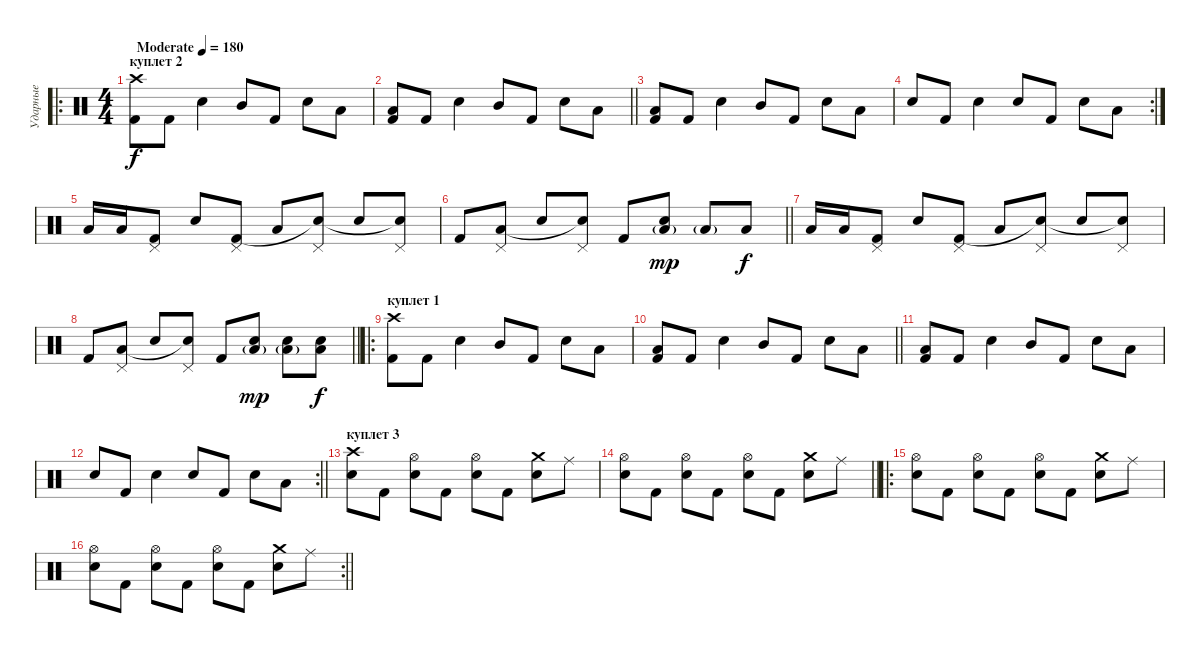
\track ("Ударные" "Ударные") {instrument percussion}
\staff {score}
\articulation defaults
\ro
\ts (4 4)
\section ("" "куплет 2")
\tempo (180 "Moderate")
\clef neutral
\ks c
("Crash high (hit)" "Kick (hit) 2").8{dy f} "Kick (hit) 2".8 "Electric Snare (hit)".4 "Mid Tom (hit)".8 "Kick (hit) 2".8 "Snare (hit) 2".8 "Low Tom (hit)".8 |
\barLineRight lightlight
("Kick (hit) 2" "Low Floor Tom (hit)").8 "Kick (hit) 2".8 "Snare (hit) 2".4 "Mid Tom (hit)".8 "Kick (hit) 2".8 "Snare (hit) 2".8 "Low Tom (hit)".8 |
("Kick (hit) 2" "Low Floor Tom (hit)").8 "Kick (hit) 2".8 "Snare (hit) 2".4 "Mid Tom (hit)".8 "Kick (hit) 2".8 "Snare (hit) 2".8 "Low Tom (hit)".8 |
\rc 2 "Snare (hit) 2".8 "Kick (hit) 2".8 "Snare (hit) 2".4 "Snare (hit) 2".8 "Kick (hit) 2".8 "Snare (hit) 2".8 "Low Tom (hit)".8
|
"Low Tom (hit)".16 "Low Tom (hit)".16 ("Pedal Hi-Hat (hit)" "Kick (hit) 2").8 "Snare (hit) 2".8 ("Pedal Hi-Hat (hit)" "Kick (hit) 2").8 "Low Floor Tom (hit)".8 ("Pedal Hi-Hat (hit)" "Snare (hit)"{t}).8 "Snare (hit) 2".8 ("Pedal Hi-Hat (hit)" "Snare (hit)"{t}).8 |
\barLineRight lightlight "Kick (hit) 2".8
("Pedal Hi-Hat (hit)" "Low Floor Tom (hit)").8 "Snare (hit) 2".8 ("Pedal Hi-Hat (hit)" "Snare (hit)"{t}).8 "Kick (hit) 2".8 ("Low Floor Tom (hit)"{g} "Snare (hit) 2").8{dy mp} "Low Floor Tom (hit)"{g}.8 "Low Floor Tom (hit)".8{dy f} |
"Low Tom (hit)".16 "Low Tom (hit)".16 ("Pedal Hi-Hat (hit)" "Kick (hit) 2").8 "Snare (hit) 2".8 ("Pedal Hi-Hat (hit)" "Kick (hit) 2").8 "Low Floor Tom (hit)".8 ("Pedal Hi-Hat (hit)" "Snare (hit)"{t}).8 "Snare (hit) 2".8 ("Pedal Hi-Hat (hit)" "Snare (hit)"{t}).8 |
\barLineRight lightlight "Kick (hit) 2".8
("Pedal Hi-Hat (hit)" "Low Floor Tom (hit)").8 "Snare (hit) 2".8 ("Pedal Hi-Hat (hit)" "Snare (hit)"{t}).8 "Kick (hit) 2".8 ("Low Floor Tom (hit)"{g} "Snare (hit) 2").8{dy mp} ("Low Floor Tom (hit)"{g} "Snare (hit) 2").8 ("Low Floor Tom (hit)" "Snare (hit) 2").8{dy f} |
\ro
\section ("" "куплет 1")
("Crash high (hit)" "Kick (hit) 2").8 "Kick (hit) 2".8 "Electric Snare (hit)".4 "Mid Tom (hit)".8 "Kick (hit) 2".8 "Snare (hit) 2".8 "Low Tom (hit)".8 |
\barLineRight lightlight
("Kick (hit) 2" "Low Floor Tom (hit)").8 "Kick (hit) 2".8 "Snare (hit) 2".4 "Mid Tom (hit)".8 "Kick (hit) 2".8 "Snare (hit) 2".8 "Low Tom (hit)".8 |
("Kick (hit) 2" "Low Floor Tom (hit)").8 "Kick (hit) 2".8 "Snare (hit) 2".4 "Mid Tom (hit)".8 "Kick (hit) 2".8 "Snare (hit) 2".8 "Low Tom (hit)".8 |
\rc 2
\barLineRight lightlight "Snare (hit) 2".8 "Kick (hit) 2".8 "Snare (hit) 2".4 "Snare (hit) 2".8 "Kick (hit) 2".8 "Snare (hit) 2".8 "Low Tom (hit)".8
|
\section ("" "куплет 3")
("Crash high (hit)" "Snare (hit) 2").8 "Kick (hit) 2".8 ("Hi-Hat (open)" "Snare (hit) 2").8 "Kick (hit) 2".8 ("Hi-Hat (open)" "Snare (hit) 2").8 "Kick (hit) 2".8 ("Crash medium (hit)" "Snare (hit) 2").8 "Ride (middle)".8 |
\barLineRight lightlight
("Hi-Hat (open)" "Snare (hit) 2").8 "Kick (hit) 2".8 ("Hi-Hat (open)" "Snare (hit) 2").8 "Kick (hit) 2".8 ("Hi-Hat (open)" "Snare (hit) 2").8 "Kick (hit) 2".8 ("Crash medium (hit)" "Snare (hit) 2").8 "Ride (middle)".8 |
\ro
("Hi-Hat (open)" "Snare (hit) 2").8 "Kick (hit) 2".8 ("Hi-Hat (open)" "Snare (hit) 2").8 "Kick (hit) 2".8 ("Hi-Hat (open)" "Snare (hit) 2").8 "Kick (hit) 2".8 ("Crash medium (hit)" "Snare (hit) 2").8 "Ride (middle)".8 |
\rc 2
\barLineRight lightlight
("Hi-Hat (open)" "Snare (hit) 2").8 "Kick (hit) 2".8 ("Hi-Hat (open)" "Snare (hit) 2").8 "Kick (hit) 2".8 ("Hi-Hat (open)" "Snare (hit) 2").8 "Kick (hit) 2".8 ("Crash medium (hit)" "Snare (hit) 2").8 "Ride (middle)".8
